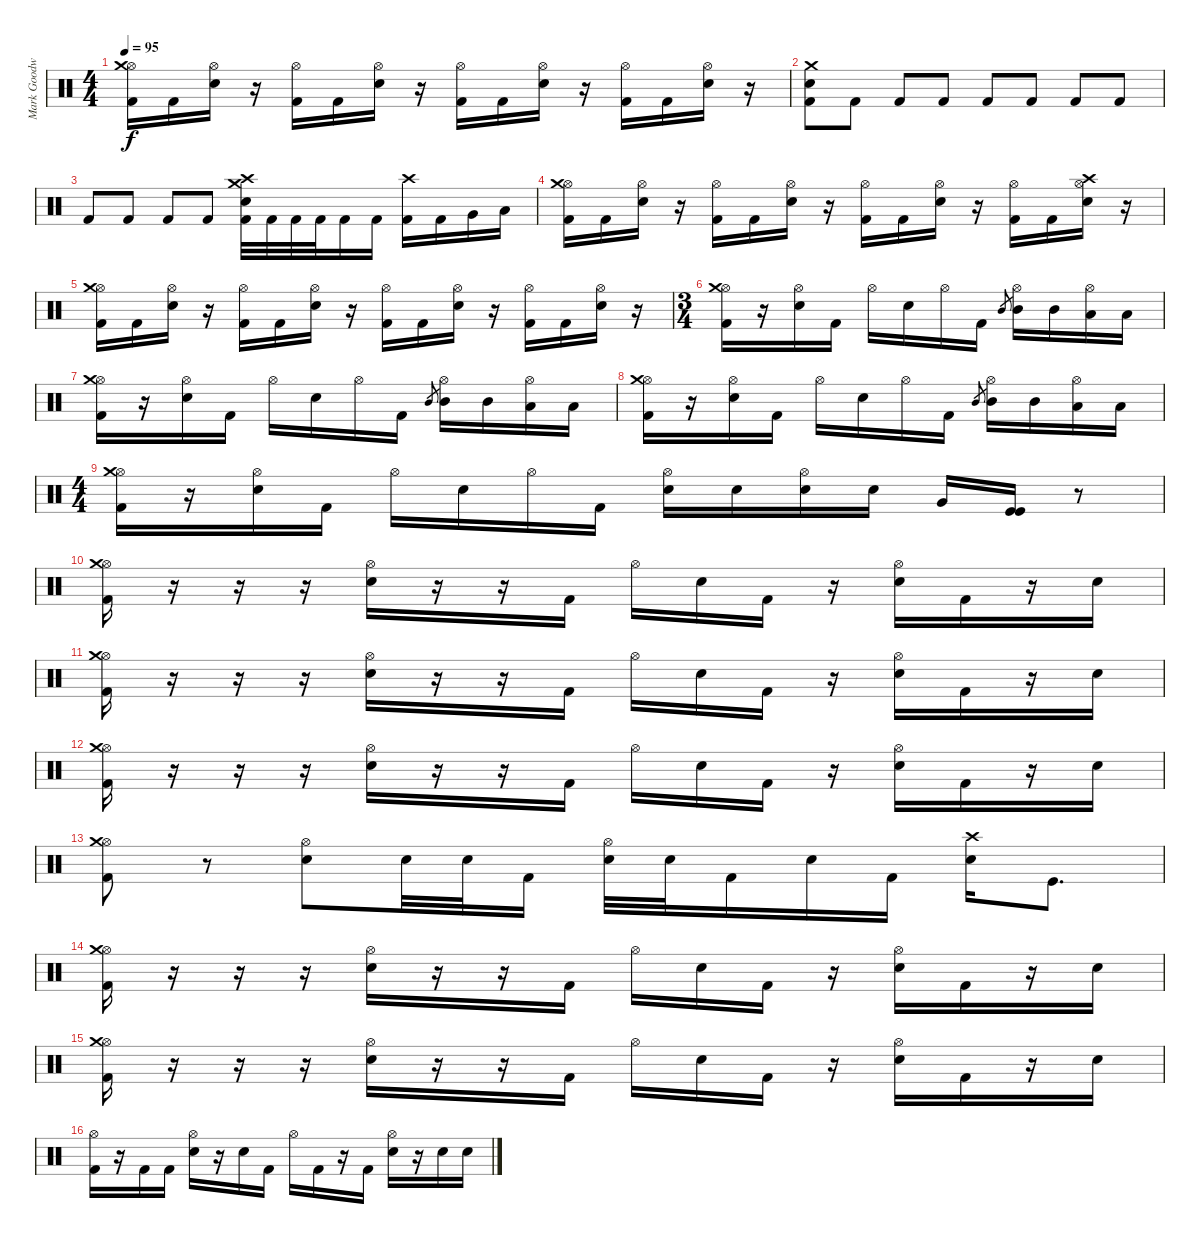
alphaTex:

\track ("Mark Goodwin" "Mark Goodw") {instrument percussion}
\staff {score}
\articulation defaults
\ts (4 4)
\tempo 95
\clef neutral
\ks c
("Hi-Hat (open)" "Crash medium (hit)" "Kick (hit) 2").16{dy f} "Kick (hit) 2".16 ("Hi-Hat (open)" "Electric Snare (hit)").16 r.16 ("Hi-Hat (open)" "Kick (hit) 2").16 "Kick (hit) 2".16 ("Hi-Hat (open)" "Electric Snare (hit)").16 r.16 ("Hi-Hat (open)" "Kick (hit) 2").16 "Kick (hit) 2".16 ("Hi-Hat (open)" "Electric Snare (hit)").16 r.16 ("Hi-Hat (open)" "Kick (hit) 2").16 "Kick (hit) 2".16 ("Hi-Hat (open)" "Electric Snare (hit)").16 r.16 |
("Crash medium (hit)" "Electric Snare (hit)" "Kick (hit) 2").8 "Kick (hit) 2".8 "Kick (hit) 2".8 "Kick (hit) 2".8 "Kick (hit) 2".8 "Kick (hit) 2".8 "Kick (hit) 2".8 "Kick (hit) 2".8 |
"Kick (hit) 2".8 "Kick (hit) 2".8 "Kick (hit) 2".8 "Kick (hit) 2".8 ("Crash medium (hit)" "Crash high (hit)" "Electric Snare (hit)" "Kick (hit) 2").32 "Kick (hit) 2".32 "Kick (hit) 2".32 "Kick (hit) 2".32 "Kick (hit) 2".16 "Kick (hit) 2".16 ("Crash high (hit)" "Kick (hit) 2").16 "Kick (hit) 2".16 "Very Low Tom (hit)".16 "Low Floor Tom (hit)".16 |
("Hi-Hat (open)" "Crash medium (hit)" "Kick (hit) 2").16 "Kick (hit) 2".16 ("Hi-Hat (open)" "Electric Snare (hit)").16 r.16 ("Hi-Hat (open)" "Kick (hit) 2").16 "Kick (hit) 2".16 ("Hi-Hat (open)" "Electric Snare (hit)").16 r.16 ("Hi-Hat (open)" "Kick (hit) 2").16 "Kick (hit) 2".16 ("Hi-Hat (open)" "Electric Snare (hit)").16 r.16 ("Hi-Hat (open)" "Kick (hit) 2").16 "Kick (hit) 2".16 ("Hi-Hat (open)" "Crash high (hit)" "Electric Snare (hit)").16 r.16 |
("Hi-Hat (open)" "Crash medium (hit)" "Kick (hit) 2").16 "Kick (hit) 2".16 ("Hi-Hat (open)" "Electric Snare (hit)").16 r.16 ("Hi-Hat (open)" "Kick (hit) 2").16 "Kick (hit) 2".16 ("Hi-Hat (open)" "Electric Snare (hit)").16 r.16 ("Hi-Hat (open)" "Kick (hit) 2").16 "Kick (hit) 2".16 ("Hi-Hat (open)" "Electric Snare (hit)").16 r.16 ("Hi-Hat (open)" "Kick (hit) 2").16 "Kick (hit) 2".16 ("Hi-Hat (open)" "Electric Snare (hit)").16 r.16 |
\ts (3 4)
("Hi-Hat (open)" "Crash medium (hit)" "Kick (hit) 2").16 r.16 ("Hi-Hat (open)" "Electric Snare (hit)").16 "Kick (hit) 2".16 "Hi-Hat (open)".16 "Electric Snare (hit)".16 "Hi-Hat (open)".16 "Kick (hit) 2".16 "Mid Tom (hit)".8{gr} ("Hi-Hat (open)" "Mid Tom (hit)").16 "Mid Tom (hit)".16 ("Hi-Hat (open)" "Low Floor Tom (hit)").16 "Low Floor Tom (hit)".16 |
("Hi-Hat (open)" "Crash medium (hit)" "Kick (hit) 2").16 r.16 ("Hi-Hat (open)" "Electric Snare (hit)").16 "Kick (hit) 2".16 "Hi-Hat (open)".16 "Electric Snare (hit)".16 "Hi-Hat (open)".16 "Kick (hit) 2".16 "Mid Tom (hit)".8{gr} ("Hi-Hat (open)" "Mid Tom (hit)").16 "Mid Tom (hit)".16 ("Hi-Hat (open)" "Low Floor Tom (hit)").16 "Low Floor Tom (hit)".16 |
("Hi-Hat (open)" "Crash medium (hit)" "Kick (hit) 2").16 r.16 ("Hi-Hat (open)" "Electric Snare (hit)").16 "Kick (hit) 2".16 "Hi-Hat (open)".16 "Electric Snare (hit)".16 "Hi-Hat (open)".16 "Kick (hit) 2".16 "Mid Tom (hit)".8{gr} ("Hi-Hat (open)" "Mid Tom (hit)").16 "Mid Tom (hit)".16 ("Hi-Hat (open)" "Low Floor Tom (hit)").16 "Low Floor Tom (hit)".16 |
\ts (4 4)
("Hi-Hat (open)" "Crash medium (hit)" "Kick (hit) 2").16 r.16 ("Hi-Hat (open)" "Electric Snare (hit)").16 "Kick (hit) 2".16 "Hi-Hat (open)".16 "Electric Snare (hit)".16 "Hi-Hat (open)".16 "Kick (hit) 2".16 ("Hi-Hat (open)" "Electric Snare (hit)").16 "Electric Snare (hit)".16 ("Hi-Hat (open)" "Electric Snare (hit)").16 "Electric Snare (hit)".16 "Very Low Tom (hit)".16 ("Kick (hit)" "Kick (hit)").16 r.8 |
("Hi-Hat (open)" "Crash medium (hit)" "Kick (hit) 2").16 r.16 r.16 r.16 ("Hi-Hat (open)" "Electric Snare (hit)").16 r.16 r.16 "Kick (hit) 2".16 "Hi-Hat (open)".16 "Electric Snare (hit)".16 "Kick (hit) 2".16 r.16 ("Hi-Hat (open)" "Electric Snare (hit)").16 "Kick (hit) 2".16 r.16 "Electric Snare (hit)".16 |
("Hi-Hat (open)" "Crash medium (hit)" "Kick (hit) 2").16 r.16 r.16 r.16 ("Hi-Hat (open)" "Electric Snare (hit)").16 r.16 r.16 "Kick (hit) 2".16 "Hi-Hat (open)".16 "Electric Snare (hit)".16 "Kick (hit) 2".16 r.16 ("Hi-Hat (open)" "Electric Snare (hit)").16 "Kick (hit) 2".16 r.16 "Electric Snare (hit)".16 |
("Hi-Hat (open)" "Crash medium (hit)" "Kick (hit) 2").16 r.16 r.16 r.16 ("Hi-Hat (open)" "Electric Snare (hit)").16 r.16 r.16 "Kick (hit) 2".16 "Hi-Hat (open)".16 "Electric Snare (hit)".16 "Kick (hit) 2".16 r.16 ("Hi-Hat (open)" "Electric Snare (hit)").16 "Kick (hit) 2".16 r.16 "Electric Snare (hit)".16 |
("Hi-Hat (open)" "Crash medium (hit)" "Kick (hit) 2").8 r.8 ("Hi-Hat (open)" "Electric Snare (hit)").8 "Electric Snare (hit)".32 "Electric Snare (hit)".32 "Kick (hit) 2".16 ("Hi-Hat (open)" "Electric Snare (hit)").32 "Electric Snare (hit)".32 "Kick (hit) 2".16 "Electric Snare (hit)".16 "Kick (hit) 2".16 ("Crash high (hit)" "Electric Snare (hit)").16 "Kick (hit)".8{d} |
("Hi-Hat (open)" "Crash medium (hit)" "Kick (hit) 2").16 r.16 r.16 r.16 ("Hi-Hat (open)" "Electric Snare (hit)").16 r.16 r.16 "Kick (hit) 2".16 "Hi-Hat (open)".16 "Electric Snare (hit)".16 "Kick (hit) 2".16 r.16 ("Hi-Hat (open)" "Electric Snare (hit)").16 "Kick (hit) 2".16 r.16 "Electric Snare (hit)".16 |
("Hi-Hat (open)" "Crash medium (hit)" "Kick (hit) 2").16 r.16 r.16 r.16 ("Hi-Hat (open)" "Electric Snare (hit)").16 r.16 r.16 "Kick (hit) 2".16 "Hi-Hat (open)".16 "Electric Snare (hit)".16 "Kick (hit) 2".16 r.16 ("Hi-Hat (open)" "Electric Snare (hit)").16 "Kick (hit) 2".16 r.16 "Electric Snare (hit)".16 |
("Hi-Hat (open)" "Kick (hit) 2").16 r.16 "Kick (hit) 2".16 "Kick (hit) 2".16 ("Hi-Hat (open)" "Electric Snare (hit)").16 r.16 "Electric Snare (hit)".16 "Kick (hit) 2".16 "Hi-Hat (open)".16 "Kick (hit) 2".16 r.16 "Kick (hit) 2".16 ("Hi-Hat (open)" "Electric Snare (hit)").16 r.16 "Electric Snare (hit)".16 "Electric Snare (hit)".16
